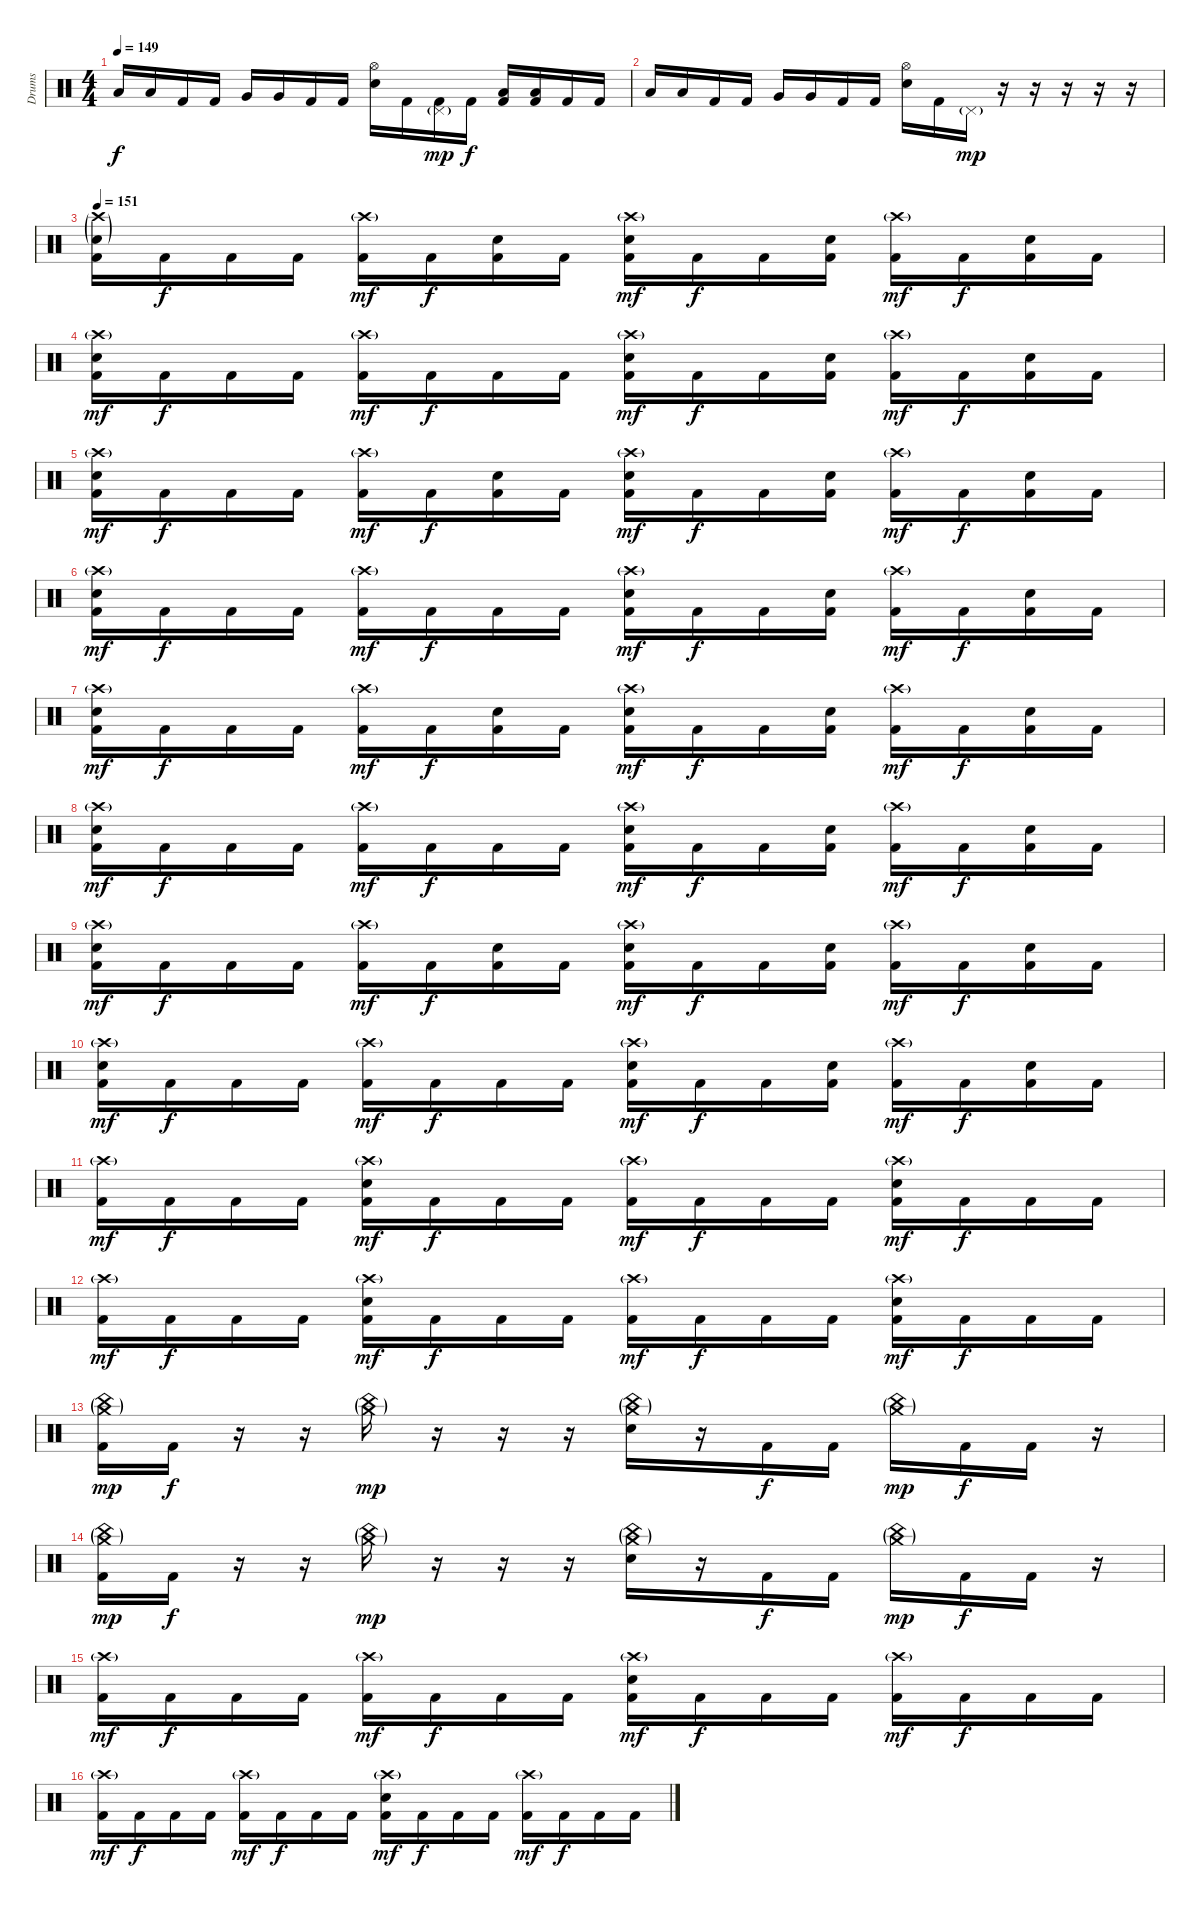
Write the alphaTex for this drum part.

\track ("Drums" "Drums") {instrument percussion}
\staff {score}
\articulation defaults
\ts (4 4)
\tempo 149
\clef neutral
\ks c "Low Tom (hit)".16{dy f} "Low Tom (hit)".16 "Kick (hit) 2".16 "Kick (hit) 2".16 "Very Low Tom (hit)".16 "Very Low Tom (hit)".16 "Kick (hit) 2".16 "Kick (hit) 2".16
("Hi-Hat (open)" "Electric Snare (hit)").16 "Kick (hit) 2".16 ("Pedal Hi-Hat (hit)"{g} "Kick (hit) 2").16{dy mp} "Kick (hit) 2".16{dy f} ("Low Tom (hit)" "Kick (hit) 2").16 ("Low Tom (hit)" "Kick (hit) 2").16 "Kick (hit) 2".16 "Kick (hit) 2".16 |
"Low Tom (hit)".16 "Low Tom (hit)".16 "Kick (hit) 2".16 "Kick (hit) 2".16 "Very Low Tom (hit)".16 "Very Low Tom (hit)".16 "Kick (hit) 2".16 "Kick (hit) 2".16 ("Hi-Hat (open)" "Electric Snare (hit)").16 "Kick (hit) 2".16 "Pedal Hi-Hat (hit)"{g}.16{dy mp} r.16 r.16 r.16 r.16 r.16 |
\tempo 151
("Crash high (hit)"{g} "Electric Snare (hit)"{g} "Kick (hit) 2").16 "Kick (hit) 2".16{dy f} "Kick (hit) 2".16 "Kick (hit) 2".16 ("Crash high (hit)"{g} "Kick (hit) 2").16{dy mf} "Kick (hit) 2".16{dy f} ("Electric Snare (hit)" "Kick (hit) 2").16 "Kick (hit) 2".16 ("Crash high (hit)"{g} "Electric Snare (hit)" "Kick (hit) 2").16{dy mf} "Kick (hit) 2".16{dy f} "Kick (hit) 2".16 ("Electric Snare (hit)" "Kick (hit) 2").16 ("Crash high (hit)"{g} "Kick (hit) 2").16{dy mf} "Kick (hit) 2".16{dy f} ("Electric Snare (hit)" "Kick (hit) 2").16 "Kick (hit) 2".16 |
("Crash high (hit)"{g} "Electric Snare (hit)" "Kick (hit) 2").16{dy mf} "Kick (hit) 2".16{dy f} "Kick (hit) 2".16 "Kick (hit) 2".16 ("Crash high (hit)"{g} "Kick (hit) 2").16{dy mf} "Kick (hit) 2".16{dy f} "Kick (hit) 2".16 "Kick (hit) 2".16 ("Crash high (hit)"{g} "Electric Snare (hit)" "Kick (hit) 2").16{dy mf} "Kick (hit) 2".16{dy f} "Kick (hit) 2".16 ("Electric Snare (hit)" "Kick (hit) 2").16 ("Crash high (hit)"{g} "Kick (hit) 2").16{dy mf} "Kick (hit) 2".16{dy f} ("Electric Snare (hit)" "Kick (hit) 2").16 "Kick (hit) 2".16 |
("Crash high (hit)"{g} "Electric Snare (hit)" "Kick (hit) 2").16{dy mf} "Kick (hit) 2".16{dy f} "Kick (hit) 2".16 "Kick (hit) 2".16 ("Crash high (hit)"{g} "Kick (hit) 2").16{dy mf} "Kick (hit) 2".16{dy f} ("Electric Snare (hit)" "Kick (hit) 2").16 "Kick (hit) 2".16 ("Crash high (hit)"{g} "Electric Snare (hit)" "Kick (hit) 2").16{dy mf} "Kick (hit) 2".16{dy f} "Kick (hit) 2".16 ("Electric Snare (hit)" "Kick (hit) 2").16 ("Crash high (hit)"{g} "Kick (hit) 2").16{dy mf} "Kick (hit) 2".16{dy f} ("Electric Snare (hit)" "Kick (hit) 2").16 "Kick (hit) 2".16 |
("Crash high (hit)"{g} "Electric Snare (hit)" "Kick (hit) 2").16{dy mf} "Kick (hit) 2".16{dy f} "Kick (hit) 2".16 "Kick (hit) 2".16 ("Crash high (hit)"{g} "Kick (hit) 2").16{dy mf} "Kick (hit) 2".16{dy f} "Kick (hit) 2".16 "Kick (hit) 2".16 ("Crash high (hit)"{g} "Electric Snare (hit)" "Kick (hit) 2").16{dy mf} "Kick (hit) 2".16{dy f} "Kick (hit) 2".16 ("Electric Snare (hit)" "Kick (hit) 2").16 ("Crash high (hit)"{g} "Kick (hit) 2").16{dy mf} "Kick (hit) 2".16{dy f} ("Electric Snare (hit)" "Kick (hit) 2").16 "Kick (hit) 2".16 |
("Crash high (hit)"{g} "Electric Snare (hit)" "Kick (hit) 2").16{dy mf} "Kick (hit) 2".16{dy f} "Kick (hit) 2".16 "Kick (hit) 2".16 ("Crash high (hit)"{g} "Kick (hit) 2").16{dy mf} "Kick (hit) 2".16{dy f} ("Electric Snare (hit)" "Kick (hit) 2").16 "Kick (hit) 2".16 ("Crash high (hit)"{g} "Electric Snare (hit)" "Kick (hit) 2").16{dy mf} "Kick (hit) 2".16{dy f} "Kick (hit) 2".16 ("Electric Snare (hit)" "Kick (hit) 2").16 ("Crash high (hit)"{g} "Kick (hit) 2").16{dy mf} "Kick (hit) 2".16{dy f} ("Electric Snare (hit)" "Kick (hit) 2").16 "Kick (hit) 2".16 |
("Crash high (hit)"{g} "Electric Snare (hit)" "Kick (hit) 2").16{dy mf} "Kick (hit) 2".16{dy f} "Kick (hit) 2".16 "Kick (hit) 2".16 ("Crash high (hit)"{g} "Kick (hit) 2").16{dy mf} "Kick (hit) 2".16{dy f} "Kick (hit) 2".16 "Kick (hit) 2".16 ("Crash high (hit)"{g} "Electric Snare (hit)" "Kick (hit) 2").16{dy mf} "Kick (hit) 2".16{dy f} "Kick (hit) 2".16 ("Electric Snare (hit)" "Kick (hit) 2").16 ("Crash high (hit)"{g} "Kick (hit) 2").16{dy mf} "Kick (hit) 2".16{dy f} ("Electric Snare (hit)" "Kick (hit) 2").16 "Kick (hit) 2".16 |
("Crash high (hit)"{g} "Electric Snare (hit)" "Kick (hit) 2").16{dy mf} "Kick (hit) 2".16{dy f} "Kick (hit) 2".16 "Kick (hit) 2".16 ("Crash high (hit)"{g} "Kick (hit) 2").16{dy mf} "Kick (hit) 2".16{dy f} ("Electric Snare (hit)" "Kick (hit) 2").16 "Kick (hit) 2".16 ("Crash high (hit)"{g} "Electric Snare (hit)" "Kick (hit) 2").16{dy mf} "Kick (hit) 2".16{dy f} "Kick (hit) 2".16 ("Electric Snare (hit)" "Kick (hit) 2").16 ("Crash high (hit)"{g} "Kick (hit) 2").16{dy mf} "Kick (hit) 2".16{dy f} ("Electric Snare (hit)" "Kick (hit) 2").16 "Kick (hit) 2".16 |
("Crash high (hit)"{g} "Electric Snare (hit)" "Kick (hit) 2").16{dy mf} "Kick (hit) 2".16{dy f} "Kick (hit) 2".16 "Kick (hit) 2".16 ("Crash high (hit)"{g} "Kick (hit) 2").16{dy mf} "Kick (hit) 2".16{dy f} "Kick (hit) 2".16 "Kick (hit) 2".16 ("Crash high (hit)"{g} "Electric Snare (hit)" "Kick (hit) 2").16{dy mf} "Kick (hit) 2".16{dy f} "Kick (hit) 2".16 ("Electric Snare (hit)" "Kick (hit) 2").16 ("Crash high (hit)"{g} "Kick (hit) 2").16{dy mf} "Kick (hit) 2".16{dy f} ("Electric Snare (hit)" "Kick (hit) 2").16 "Kick (hit) 2".16 |
("Crash high (hit)"{g} "Kick (hit) 2").16{dy mf} "Kick (hit) 2".16{dy f} "Kick (hit) 2".16 "Kick (hit) 2".16 ("Crash high (hit)"{g} "Electric Snare (hit)" "Kick (hit) 2").16{dy mf} "Kick (hit) 2".16{dy f} "Kick (hit) 2".16 "Kick (hit) 2".16 ("Crash high (hit)"{g} "Kick (hit) 2").16{dy mf} "Kick (hit) 2".16{dy f} "Kick (hit) 2".16 "Kick (hit) 2".16 ("Crash high (hit)"{g} "Electric Snare (hit)" "Kick (hit) 2").16{dy mf} "Kick (hit) 2".16{dy f} "Kick (hit) 2".16 "Kick (hit) 2".16 |
("Crash high (hit)"{g} "Kick (hit) 2").16{dy mf} "Kick (hit) 2".16{dy f} "Kick (hit) 2".16 "Kick (hit) 2".16 ("Crash high (hit)"{g} "Electric Snare (hit)" "Kick (hit) 2").16{dy mf} "Kick (hit) 2".16{dy f} "Kick (hit) 2".16 "Kick (hit) 2".16 ("Crash high (hit)"{g} "Kick (hit) 2").16{dy mf} "Kick (hit) 2".16{dy f} "Kick (hit) 2".16 "Kick (hit) 2".16 ("Crash high (hit)"{g} "Electric Snare (hit)" "Kick (hit) 2").16{dy mf} "Kick (hit) 2".16{dy f} "Kick (hit) 2".16 "Kick (hit) 2".16 |
("China (hit)"{g} "Crash medium (hit)"{g} "Kick (hit) 2").16{dy mp} "Kick (hit) 2".16{dy f} r.16 r.16 ("China (hit)"{g} "Crash medium (hit)"{g}).16{dy mp} r.16 r.16 r.16 ("China (hit)"{g} "Crash medium (hit)"{g} "Electric Snare (hit)").16 r.16 "Kick (hit) 2".16{dy f} "Kick (hit) 2".16 ("China (hit)"{g} "Crash medium (hit)"{g}).16{dy mp} "Kick (hit) 2".16{dy f} "Kick (hit) 2".16 r.16 |
("China (hit)"{g} "Crash medium (hit)"{g} "Kick (hit) 2").16{dy mp} "Kick (hit) 2".16{dy f} r.16 r.16 ("China (hit)"{g} "Crash medium (hit)"{g}).16{dy mp} r.16 r.16 r.16 ("China (hit)"{g} "Crash medium (hit)"{g} "Electric Snare (hit)").16 r.16 "Kick (hit) 2".16{dy f} "Kick (hit) 2".16 ("China (hit)"{g} "Crash medium (hit)"{g}).16{dy mp} "Kick (hit) 2".16{dy f} "Kick (hit) 2".16 r.16 |
("Crash high (hit)"{g} "Kick (hit) 2").16{dy mf} "Kick (hit) 2".16{dy f} "Kick (hit) 2".16 "Kick (hit) 2".16 ("Crash high (hit)"{g} "Kick (hit) 2").16{dy mf} "Kick (hit) 2".16{dy f} "Kick (hit) 2".16 "Kick (hit) 2".16 ("Crash high (hit)"{g} "Electric Snare (hit)" "Kick (hit) 2").16{dy mf} "Kick (hit) 2".16{dy f} "Kick (hit) 2".16 "Kick (hit) 2".16 ("Crash high (hit)"{g} "Kick (hit) 2").16{dy mf} "Kick (hit) 2".16{dy f} "Kick (hit) 2".16 "Kick (hit) 2".16 |
("Crash high (hit)"{g} "Kick (hit) 2").16{dy mf} "Kick (hit) 2".16{dy f} "Kick (hit) 2".16 "Kick (hit) 2".16 ("Crash high (hit)"{g} "Kick (hit) 2").16{dy mf} "Kick (hit) 2".16{dy f} "Kick (hit) 2".16 "Kick (hit) 2".16 ("Crash high (hit)"{g} "Electric Snare (hit)" "Kick (hit) 2").16{dy mf} "Kick (hit) 2".16{dy f} "Kick (hit) 2".16 "Kick (hit) 2".16 ("Crash high (hit)"{g} "Kick (hit) 2").16{dy mf} "Kick (hit) 2".16{dy f} "Kick (hit) 2".16 "Kick (hit) 2".16
